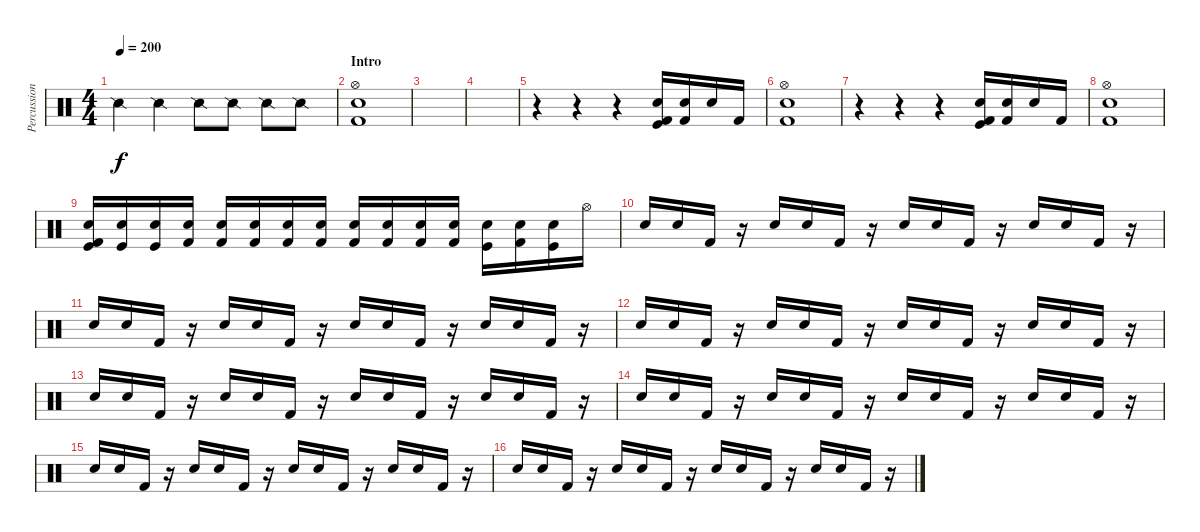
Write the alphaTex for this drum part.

\track ("Percussion" "Percussion") {instrument percussion}
\staff {score}
\articulation defaults
\ts (4 4)
\tempo 200
\clef neutral
\ks c "Snare (side stick) 2".4{dy f} "Snare (side stick) 2".4 "Snare (side stick) 2".8 "Snare (side stick) 2".8 "Snare (side stick) 2".8 "Snare (side stick) 2".8
|
\section ("" "Intro")
("Kick (hit) 2" "Snare (hit) 2" "Hi-Hat (open)").1 |
|
|
r.4 r.4 r.4 ("Kick (hit) 2" "Kick (hit)" "Snare (hit) 2").16 ("Kick (hit) 2" "Electric Snare (hit)").16 "Snare (hit) 2".16 "Kick (hit) 2".16 |
("Snare (hit) 2" "Kick (hit) 2" "Hi-Hat (open)").1 |
r.4 r.4 r.4 ("Kick (hit) 2" "Kick (hit)" "Snare (hit) 2").16 ("Kick (hit) 2" "Electric Snare (hit)").16 "Snare (hit) 2".16 "Kick (hit) 2".16 |
("Snare (hit) 2" "Kick (hit) 2" "Hi-Hat (open)").1 |
("Kick (hit) 2" "Kick (hit)" "Snare (hit) 2").16 ("Kick (hit)" "Electric Snare (hit)").16 ("Snare (hit) 2" "Kick (hit)").16 ("Electric Snare (hit)" "Kick (hit) 2").16 ("Kick (hit) 2" "Snare (hit) 2").16 ("Kick (hit) 2" "Electric Snare (hit)").16 ("Kick (hit) 2" "Snare (hit) 2").16 ("Snare (hit) 2" "Kick (hit) 2").16 ("Kick (hit) 2" "Electric Snare (hit)").16 ("Snare (hit) 2" "Kick (hit) 2").16 ("Kick (hit) 2" "Electric Snare (hit)").16 ("Snare (hit) 2" "Kick (hit) 2").16 ("Electric Snare (hit)" "Kick (hit)").16 ("Kick (hit) 2" "Snare (hit) 2").16 ("Electric Snare (hit)" "Kick (hit)").16 "Hi-Hat (open)".16 |
"Snare (hit) 2".16 "Electric Snare (hit)".16 "Kick (hit) 2".16 r.16 "Snare (hit) 2".16 "Electric Snare (hit)".16 "Kick (hit) 2".16 r.16 "Snare (hit) 2".16 "Electric Snare (hit)".16 "Kick (hit) 2".16 r.16 "Snare (hit) 2".16 "Electric Snare (hit)".16 "Kick (hit) 2".16 r.16 |
"Snare (hit) 2".16 "Electric Snare (hit)".16 "Kick (hit) 2".16 r.16 "Snare (hit) 2".16 "Electric Snare (hit)".16 "Kick (hit) 2".16 r.16 "Snare (hit) 2".16 "Electric Snare (hit)".16 "Kick (hit) 2".16 r.16 "Snare (hit) 2".16 "Electric Snare (hit)".16 "Kick (hit) 2".16 r.16 |
"Snare (hit) 2".16 "Electric Snare (hit)".16 "Kick (hit) 2".16 r.16 "Snare (hit) 2".16 "Electric Snare (hit)".16 "Kick (hit) 2".16 r.16 "Snare (hit) 2".16 "Electric Snare (hit)".16 "Kick (hit) 2".16 r.16 "Snare (hit) 2".16 "Electric Snare (hit)".16 "Kick (hit) 2".16 r.16 |
"Snare (hit) 2".16 "Electric Snare (hit)".16 "Kick (hit) 2".16 r.16 "Snare (hit) 2".16 "Electric Snare (hit)".16 "Kick (hit) 2".16 r.16 "Snare (hit) 2".16 "Electric Snare (hit)".16 "Kick (hit) 2".16 r.16 "Snare (hit) 2".16 "Electric Snare (hit)".16 "Kick (hit) 2".16 r.16 |
"Snare (hit) 2".16 "Electric Snare (hit)".16 "Kick (hit) 2".16 r.16 "Snare (hit) 2".16 "Electric Snare (hit)".16 "Kick (hit) 2".16 r.16 "Snare (hit) 2".16 "Electric Snare (hit)".16 "Kick (hit) 2".16 r.16 "Snare (hit) 2".16 "Electric Snare (hit)".16 "Kick (hit) 2".16 r.16 |
"Snare (hit) 2".16 "Electric Snare (hit)".16 "Kick (hit) 2".16 r.16 "Snare (hit) 2".16 "Electric Snare (hit)".16 "Kick (hit) 2".16 r.16 "Snare (hit) 2".16 "Electric Snare (hit)".16 "Kick (hit) 2".16 r.16 "Snare (hit) 2".16 "Electric Snare (hit)".16 "Kick (hit) 2".16 r.16 |
"Snare (hit) 2".16 "Electric Snare (hit)".16 "Kick (hit) 2".16 r.16 "Snare (hit) 2".16 "Electric Snare (hit)".16 "Kick (hit) 2".16 r.16 "Snare (hit) 2".16 "Electric Snare (hit)".16 "Kick (hit) 2".16 r.16 "Snare (hit) 2".16 "Electric Snare (hit)".16 "Kick (hit) 2".16 r.16
